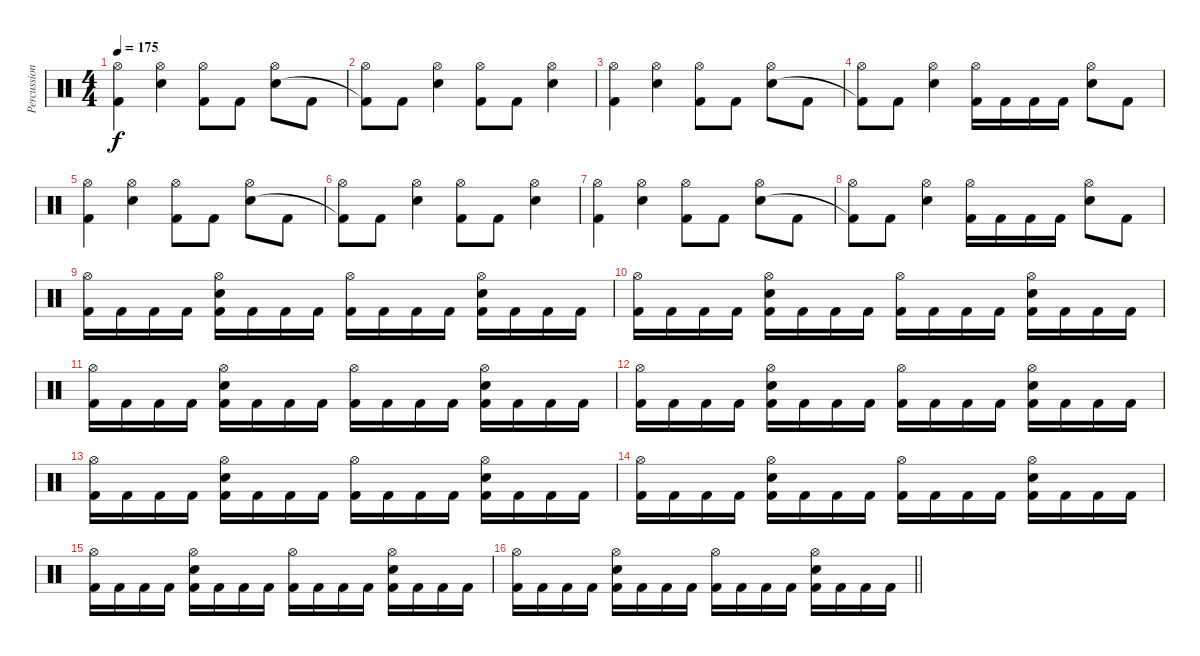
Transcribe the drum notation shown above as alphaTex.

\track ("Percussion" "Percussion") {instrument percussion}
\staff {score}
\articulation defaults
\ts (4 4)
\tempo 175
\clef neutral
\ks c
("Hi-Hat (open)" "Kick (hit) 2").4{dy f} ("Hi-Hat (open)" "Electric Snare (hit)").4 ("Hi-Hat (open)" "Kick (hit) 2").8 "Kick (hit) 2".8 ("Hi-Hat (open)" "Electric Snare (hit)").8 "Kick (hit) 2".8 |
("Hi-Hat (open)" "Kick (hit) 2"{t}).8 "Kick (hit) 2".8 ("Hi-Hat (open)" "Electric Snare (hit)").4 ("Hi-Hat (open)" "Kick (hit) 2").8 "Kick (hit) 2".8 ("Hi-Hat (open)" "Electric Snare (hit)").4 |
("Hi-Hat (open)" "Kick (hit) 2").4 ("Hi-Hat (open)" "Electric Snare (hit)").4 ("Hi-Hat (open)" "Kick (hit) 2").8 "Kick (hit) 2".8 ("Hi-Hat (open)" "Electric Snare (hit)").8 "Kick (hit) 2".8 |
("Hi-Hat (open)" "Kick (hit) 2"{t}).8 "Kick (hit) 2".8 ("Hi-Hat (open)" "Electric Snare (hit)").4 ("Hi-Hat (open)" "Kick (hit) 2").16 "Kick (hit) 2".16 "Kick (hit) 2".16 "Kick (hit) 2".16 ("Hi-Hat (open)" "Electric Snare (hit)").8 "Kick (hit) 2".8 |
("Hi-Hat (open)" "Kick (hit) 2").4 ("Hi-Hat (open)" "Electric Snare (hit)").4 ("Hi-Hat (open)" "Kick (hit) 2").8 "Kick (hit) 2".8 ("Hi-Hat (open)" "Electric Snare (hit)").8 "Kick (hit) 2".8 |
("Hi-Hat (open)" "Kick (hit) 2"{t}).8 "Kick (hit) 2".8 ("Hi-Hat (open)" "Electric Snare (hit)").4 ("Hi-Hat (open)" "Kick (hit) 2").8 "Kick (hit) 2".8 ("Hi-Hat (open)" "Electric Snare (hit)").4 |
("Hi-Hat (open)" "Kick (hit) 2").4 ("Hi-Hat (open)" "Electric Snare (hit)").4 ("Hi-Hat (open)" "Kick (hit) 2").8 "Kick (hit) 2".8 ("Hi-Hat (open)" "Electric Snare (hit)").8 "Kick (hit) 2".8 |
("Hi-Hat (open)" "Kick (hit) 2"{t}).8 "Kick (hit) 2".8 ("Hi-Hat (open)" "Electric Snare (hit)").4 ("Hi-Hat (open)" "Kick (hit) 2").16 "Kick (hit) 2".16 "Kick (hit) 2".16 "Kick (hit) 2".16 ("Hi-Hat (open)" "Electric Snare (hit)").8 "Kick (hit) 2".8 |
("Hi-Hat (open)" "Kick (hit) 2").16 "Kick (hit) 2".16 "Kick (hit) 2".16 "Kick (hit) 2".16 ("Hi-Hat (open)" "Electric Snare (hit)" "Kick (hit) 2").16 "Kick (hit) 2".16 "Kick (hit) 2".16 "Kick (hit) 2".16 ("Hi-Hat (open)" "Kick (hit) 2").16 "Kick (hit) 2".16 "Kick (hit) 2".16 "Kick (hit) 2".16 ("Hi-Hat (open)" "Electric Snare (hit)" "Kick (hit) 2").16 "Kick (hit) 2".16 "Kick (hit) 2".16 "Kick (hit) 2".16 |
("Hi-Hat (open)" "Kick (hit) 2").16 "Kick (hit) 2".16 "Kick (hit) 2".16 "Kick (hit) 2".16 ("Hi-Hat (open)" "Electric Snare (hit)" "Kick (hit) 2").16 "Kick (hit) 2".16 "Kick (hit) 2".16 "Kick (hit) 2".16 ("Hi-Hat (open)" "Kick (hit) 2").16 "Kick (hit) 2".16 "Kick (hit) 2".16 "Kick (hit) 2".16 ("Hi-Hat (open)" "Electric Snare (hit)" "Kick (hit) 2").16 "Kick (hit) 2".16 "Kick (hit) 2".16 "Kick (hit) 2".16 |
("Hi-Hat (open)" "Kick (hit) 2").16 "Kick (hit) 2".16 "Kick (hit) 2".16 "Kick (hit) 2".16 ("Hi-Hat (open)" "Electric Snare (hit)" "Kick (hit) 2").16 "Kick (hit) 2".16 "Kick (hit) 2".16 "Kick (hit) 2".16 ("Hi-Hat (open)" "Kick (hit) 2").16 "Kick (hit) 2".16 "Kick (hit) 2".16 "Kick (hit) 2".16 ("Hi-Hat (open)" "Electric Snare (hit)" "Kick (hit) 2").16 "Kick (hit) 2".16 "Kick (hit) 2".16 "Kick (hit) 2".16 |
("Hi-Hat (open)" "Kick (hit) 2").16 "Kick (hit) 2".16 "Kick (hit) 2".16 "Kick (hit) 2".16 ("Hi-Hat (open)" "Electric Snare (hit)" "Kick (hit) 2").16 "Kick (hit) 2".16 "Kick (hit) 2".16 "Kick (hit) 2".16 ("Hi-Hat (open)" "Kick (hit) 2").16 "Kick (hit) 2".16 "Kick (hit) 2".16 "Kick (hit) 2".16 ("Hi-Hat (open)" "Electric Snare (hit)" "Kick (hit) 2").16 "Kick (hit) 2".16 "Kick (hit) 2".16 "Kick (hit) 2".16 |
("Hi-Hat (open)" "Kick (hit) 2").16 "Kick (hit) 2".16 "Kick (hit) 2".16 "Kick (hit) 2".16 ("Hi-Hat (open)" "Electric Snare (hit)" "Kick (hit) 2").16 "Kick (hit) 2".16 "Kick (hit) 2".16 "Kick (hit) 2".16 ("Hi-Hat (open)" "Kick (hit) 2").16 "Kick (hit) 2".16 "Kick (hit) 2".16 "Kick (hit) 2".16 ("Hi-Hat (open)" "Electric Snare (hit)" "Kick (hit) 2").16 "Kick (hit) 2".16 "Kick (hit) 2".16 "Kick (hit) 2".16 |
("Hi-Hat (open)" "Kick (hit) 2").16 "Kick (hit) 2".16 "Kick (hit) 2".16 "Kick (hit) 2".16 ("Hi-Hat (open)" "Electric Snare (hit)" "Kick (hit) 2").16 "Kick (hit) 2".16 "Kick (hit) 2".16 "Kick (hit) 2".16 ("Hi-Hat (open)" "Kick (hit) 2").16 "Kick (hit) 2".16 "Kick (hit) 2".16 "Kick (hit) 2".16 ("Hi-Hat (open)" "Electric Snare (hit)" "Kick (hit) 2").16 "Kick (hit) 2".16 "Kick (hit) 2".16 "Kick (hit) 2".16 |
("Hi-Hat (open)" "Kick (hit) 2").16 "Kick (hit) 2".16 "Kick (hit) 2".16 "Kick (hit) 2".16 ("Hi-Hat (open)" "Electric Snare (hit)" "Kick (hit) 2").16 "Kick (hit) 2".16 "Kick (hit) 2".16 "Kick (hit) 2".16 ("Hi-Hat (open)" "Kick (hit) 2").16 "Kick (hit) 2".16 "Kick (hit) 2".16 "Kick (hit) 2".16 ("Hi-Hat (open)" "Electric Snare (hit)" "Kick (hit) 2").16 "Kick (hit) 2".16 "Kick (hit) 2".16 "Kick (hit) 2".16 |
\barLineRight lightlight
("Hi-Hat (open)" "Kick (hit) 2").16 "Kick (hit) 2".16 "Kick (hit) 2".16 "Kick (hit) 2".16 ("Hi-Hat (open)" "Electric Snare (hit)" "Kick (hit) 2").16 "Kick (hit) 2".16 "Kick (hit) 2".16 "Kick (hit) 2".16 ("Hi-Hat (open)" "Kick (hit) 2").16 "Kick (hit) 2".16 "Kick (hit) 2".16 "Kick (hit) 2".16 ("Hi-Hat (open)" "Electric Snare (hit)" "Kick (hit) 2").16 "Kick (hit) 2".16 "Kick (hit) 2".16 "Kick (hit) 2".16
